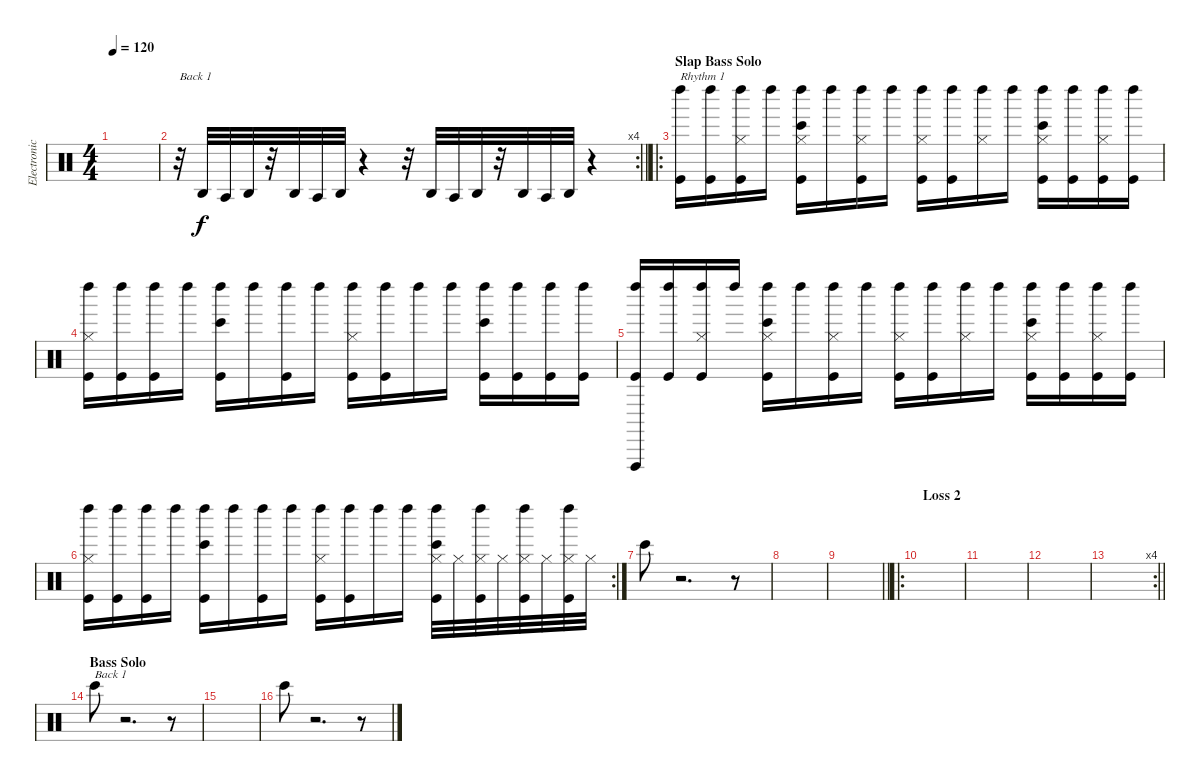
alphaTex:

\track ("Electronic Drums" "Electronic") {instrument percussion}
\staff {score}
\articulation defaults
\ts (4 4)
\tempo 120
\clef neutral
\ks c
|
\rc 4
\barLineRight lightlight
r.32{txt "Back 1"} "Agogo high (hit)".32 "Agogo tow (hit)".32 "Agogo high (hit)".32 r.32 "Agogo high (hit)".32 "Agogo tow (hit)".32 "Agogo high (hit)".32 r.4 r.32 "Agogo high (hit)".32 "Agogo tow (hit)".32 "Agogo high (hit)".32 r.32 "Agogo high (hit)".32 "Agogo tow (hit)".32 "Agogo high (hit)".32 r.4 |
\ro
\section ("" "Slap Bass Solo")
("Left Maraca (hit)" "Kick (hit)").16{txt "Rhythm 1"} ("Left Maraca (hit)" "Kick (hit)").16 ("Hi-Hat (closed)" "Left Maraca (hit)" "Kick (hit)").16 "Left Maraca (hit)".16 ("Hi-Hat (closed)" "Left Maraca (hit)" "Bongo High (hit)" "Kick (hit)").16 "Left Maraca (hit)".16 ("Hi-Hat (closed)" "Left Maraca (hit)" "Kick (hit)").16 "Left Maraca (hit)".16 ("Hi-Hat (closed)" "Left Maraca (hit)" "Kick (hit)").16 ("Left Maraca (hit)" "Kick (hit)").16 ("Hi-Hat (closed)" "Left Maraca (hit)").16 "Left Maraca (hit)".16 ("Hi-Hat (closed)" "Left Maraca (hit)" "Bongo High (hit)" "Kick (hit)").16 ("Left Maraca (hit)" "Kick (hit)").16 ("Hi-Hat (closed)" "Left Maraca (hit)" "Kick (hit)").16 ("Left Maraca (hit)" "Kick (hit)").16 |
("Hi-Hat (closed)" "Left Maraca (hit)" "Kick (hit)").16 ("Left Maraca (hit)" "Kick (hit)").16 ("Left Maraca (hit)" "Kick (hit)").16 "Left Maraca (hit)".16 ("Left Maraca (hit)" "Bongo High (hit)" "Kick (hit)").16 "Left Maraca (hit)".16 ("Left Maraca (hit)" "Kick (hit)").16 "Left Maraca (hit)".16 ("Hi-Hat (closed)" "Left Maraca (hit)" "Kick (hit)").16 ("Left Maraca (hit)" "Kick (hit)").16 "Left Maraca (hit)".16 "Left Maraca (hit)".16 ("Left Maraca (hit)" "Bongo High (hit)" "Kick (hit)").16 ("Left Maraca (hit)" "Kick (hit)").16 ("Left Maraca (hit)" "Kick (hit)").16 ("Left Maraca (hit)" "Kick (hit)").16 |
("Vibraslap (hit)" "Left Maraca (hit)" "Kick (hit)").16 ("Left Maraca (hit)" "Kick (hit)").16 ("Hi-Hat (closed)" "Left Maraca (hit)" "Kick (hit)").16 "Left Maraca (hit)".16 ("Hi-Hat (closed)" "Left Maraca (hit)" "Bongo High (hit)" "Kick (hit)").16 "Left Maraca (hit)".16 ("Hi-Hat (closed)" "Left Maraca (hit)" "Kick (hit)").16 "Left Maraca (hit)".16 ("Hi-Hat (closed)" "Left Maraca (hit)" "Kick (hit)").16 ("Left Maraca (hit)" "Kick (hit)").16 ("Hi-Hat (closed)" "Left Maraca (hit)").16 "Left Maraca (hit)".16 ("Hi-Hat (closed)" "Left Maraca (hit)" "Bongo High (hit)" "Kick (hit)").16 ("Left Maraca (hit)" "Kick (hit)").16 ("Hi-Hat (closed)" "Left Maraca (hit)" "Kick (hit)").16 ("Left Maraca (hit)" "Kick (hit)").16 |
\rc 2
("Hi-Hat (closed)" "Left Maraca (hit)" "Kick (hit)").16 ("Left Maraca (hit)" "Kick (hit)").16 ("Left Maraca (hit)" "Kick (hit)").16 "Left Maraca (hit)".16 ("Left Maraca (hit)" "Bongo High (hit)" "Kick (hit)").16 "Left Maraca (hit)".16 ("Left Maraca (hit)" "Kick (hit)").16 "Left Maraca (hit)".16 ("Hi-Hat (closed)" "Left Maraca (hit)" "Kick (hit)").16 ("Left Maraca (hit)" "Kick (hit)").16 "Left Maraca (hit)".16 "Left Maraca (hit)".16 ("Hi-Hat (closed)" "Left Maraca (hit)" "Bongo High (hit)" "Kick (hit)").32 "Hi-Hat (closed)".32 ("Hi-Hat (closed)" "Left Maraca (hit)" "Kick (hit)").32 "Hi-Hat (closed)".32 ("Hi-Hat (closed)" "Left Maraca (hit)" "Kick (hit)").32 "Hi-Hat (closed)".32 ("Hi-Hat (closed)" "Left Maraca (hit)" "Kick (hit)").32 "Hi-Hat (closed)".32 |
"Bongo High (hit)".8 r.2{d} r.8 |
|
\barLineRight lightlight
|
\ro
\section ("" "Loss 2")
|
|
|
\rc 4
\barLineRight lightlight
|
\section ("" "Bass Solo")
"Bongo High (hit)".8{txt "Back 1"} r.2{d} r.8 |
|
"Bongo High (hit)".8 r.2{d} r.8
